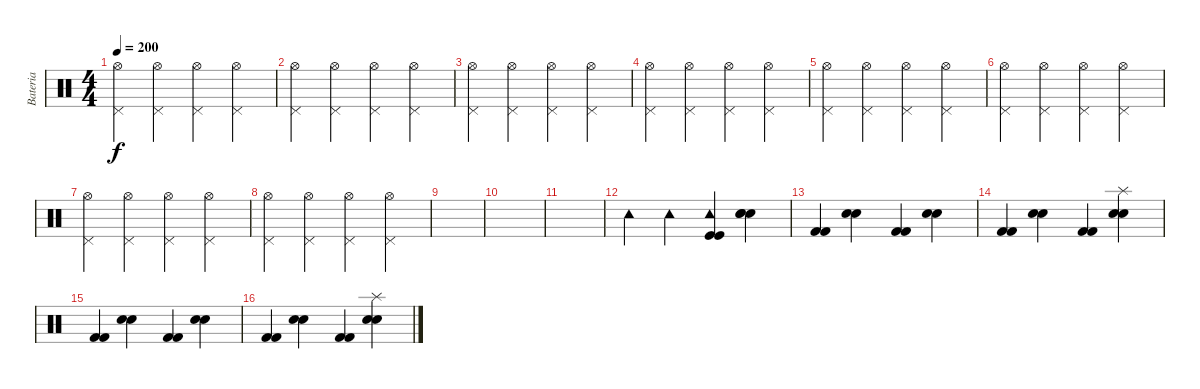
\track ("Bateria" "Bateria") {instrument percussion}
\staff {score}
\articulation defaults
\ts (4 4)
\tempo 200
\clef neutral
\ks c
("Pedal Hi-Hat (hit)" "Hi-Hat (open)").4{dy f} ("Pedal Hi-Hat (hit)" "Hi-Hat (open)").4 ("Pedal Hi-Hat (hit)" "Hi-Hat (open)").4 ("Pedal Hi-Hat (hit)" "Hi-Hat (open)").4 |
("Pedal Hi-Hat (hit)" "Hi-Hat (open)").4 ("Pedal Hi-Hat (hit)" "Hi-Hat (open)").4 ("Pedal Hi-Hat (hit)" "Hi-Hat (open)").4 ("Pedal Hi-Hat (hit)" "Hi-Hat (open)").4 |
("Pedal Hi-Hat (hit)" "Hi-Hat (open)").4 ("Pedal Hi-Hat (hit)" "Hi-Hat (open)").4 ("Pedal Hi-Hat (hit)" "Hi-Hat (open)").4 ("Pedal Hi-Hat (hit)" "Hi-Hat (open)").4 |
("Pedal Hi-Hat (hit)" "Hi-Hat (open)").4 ("Pedal Hi-Hat (hit)" "Hi-Hat (open)").4 ("Pedal Hi-Hat (hit)" "Hi-Hat (open)").4 ("Pedal Hi-Hat (hit)" "Hi-Hat (open)").4 |
("Pedal Hi-Hat (hit)" "Hi-Hat (open)").4 ("Pedal Hi-Hat (hit)" "Hi-Hat (open)").4 ("Pedal Hi-Hat (hit)" "Hi-Hat (open)").4 ("Pedal Hi-Hat (hit)" "Hi-Hat (open)").4 |
("Pedal Hi-Hat (hit)" "Hi-Hat (open)").4 ("Pedal Hi-Hat (hit)" "Hi-Hat (open)").4 ("Pedal Hi-Hat (hit)" "Hi-Hat (open)").4 ("Pedal Hi-Hat (hit)" "Hi-Hat (open)").4 |
("Pedal Hi-Hat (hit)" "Hi-Hat (open)").4 ("Pedal Hi-Hat (hit)" "Hi-Hat (open)").4 ("Pedal Hi-Hat (hit)" "Hi-Hat (open)").4 ("Pedal Hi-Hat (hit)" "Hi-Hat (open)").4 |
("Pedal Hi-Hat (hit)" "Hi-Hat (open)").4 ("Pedal Hi-Hat (hit)" "Hi-Hat (open)").4 ("Pedal Hi-Hat (hit)" "Hi-Hat (open)").4 ("Pedal Hi-Hat (hit)" "Hi-Hat (open)").4 |
|
|
|
"Tambourine (hit)".4 "Tambourine (hit)".4 ("Kick (hit)" "Kick (hit)" "Tambourine (hit)").4 ("Snare (hit) 2" "Snare (hit) 2" "Snare (hit) 2").4 |
("Kick (hit) 2" "Kick (hit) 2").4 ("Snare (hit) 2" "Snare (hit) 2").4 ("Kick (hit) 2" "Kick (hit) 2").4 ("Snare (hit) 2" "Snare (hit) 2").4 |
("Kick (hit) 2" "Kick (hit) 2").4 ("Snare (hit) 2" "Snare (hit) 2").4 ("Kick (hit) 2" "Kick (hit) 2").4 ("Splash (hit)" "Snare (hit) 2" "Snare (hit) 2").4 |
("Kick (hit) 2" "Kick (hit) 2").4 ("Snare (hit) 2" "Snare (hit) 2").4 ("Kick (hit) 2" "Kick (hit) 2").4 ("Snare (hit) 2" "Snare (hit) 2").4 |
("Kick (hit) 2" "Kick (hit) 2").4 ("Snare (hit) 2" "Snare (hit) 2").4 ("Kick (hit) 2" "Kick (hit) 2").4 ("Splash (hit)" "Snare (hit) 2" "Snare (hit) 2").4
